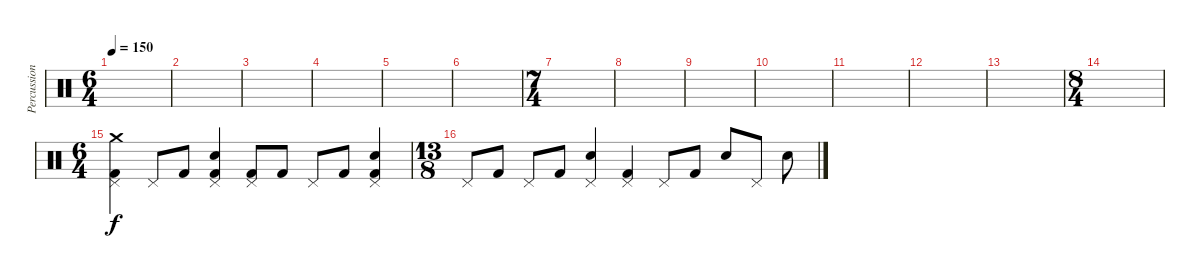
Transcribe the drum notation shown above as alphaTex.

\track ("Percussion" "Percussion") {instrument percussion}
\staff {score}
\articulation defaults
\ts (6 4)
\tempo 150
\clef neutral
\ks c
|
|
|
|
|
|
\ts (7 4)
|
|
|
|
|
|
|
\ts (8 4)
|
\ts (6 4)
("Crash medium (hit)" "Pedal Hi-Hat (hit)" "Kick (hit) 2").4 "Pedal Hi-Hat (hit)".8 "Kick (hit) 2".8 ("Pedal Hi-Hat (hit)" "Electric Snare (hit)" "Kick (hit) 2").4 ("Pedal Hi-Hat (hit)" "Kick (hit) 2").8 "Kick (hit) 2".8 "Pedal Hi-Hat (hit)".8 "Kick (hit) 2".8 ("Pedal Hi-Hat (hit)" "Electric Snare (hit)" "Kick (hit) 2").4 |
\ts (13 8)
"Pedal Hi-Hat (hit)".8 "Kick (hit) 2".8 "Pedal Hi-Hat (hit)".8 "Kick (hit) 2".8 ("Pedal Hi-Hat (hit)" "Electric Snare (hit)").4 ("Pedal Hi-Hat (hit)" "Kick (hit) 2").4 "Pedal Hi-Hat (hit)".8 "Kick (hit) 2".8 "Electric Snare (hit)".8 "Pedal Hi-Hat (hit)".8 "Electric Snare (hit)".8
